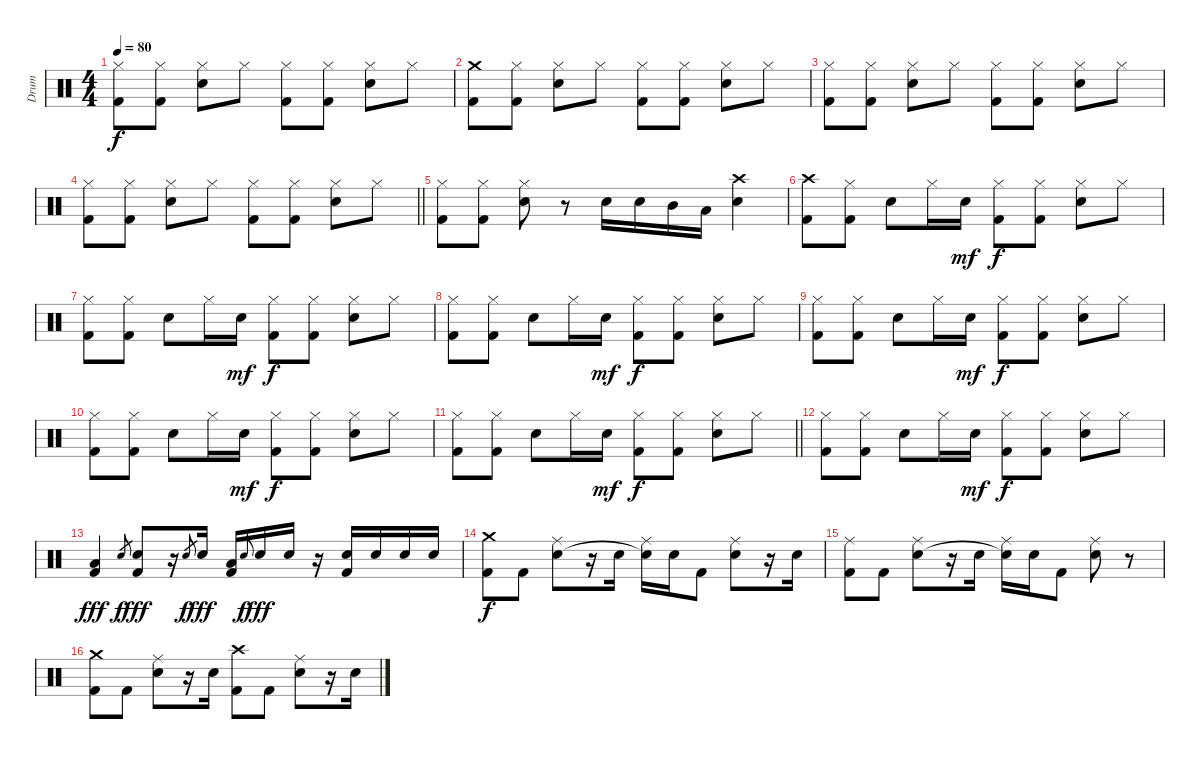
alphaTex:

\track ("Drum" "Drum") {instrument percussion}
\staff {score}
\articulation defaults
\ts (4 4)
\tempo 80
\clef neutral
\ks c
("Hi-Hat (closed)" "Kick (hit) 2").8{dy f} ("Hi-Hat (closed)" "Kick (hit) 2").8 ("Hi-Hat (closed)" "Electric Snare (hit)").8 "Hi-Hat (closed)".8 ("Hi-Hat (closed)" "Kick (hit) 2").8 ("Hi-Hat (closed)" "Kick (hit) 2").8 ("Hi-Hat (closed)" "Electric Snare (hit)").8 "Hi-Hat (closed)".8 |
("Crash medium (hit)" "Kick (hit) 2").8 ("Hi-Hat (closed)" "Kick (hit) 2").8 ("Hi-Hat (closed)" "Electric Snare (hit)").8 "Hi-Hat (closed)".8 ("Hi-Hat (closed)" "Kick (hit) 2").8 ("Hi-Hat (closed)" "Kick (hit) 2").8 ("Hi-Hat (closed)" "Electric Snare (hit)").8 "Hi-Hat (closed)".8 |
("Hi-Hat (closed)" "Kick (hit) 2").8 ("Hi-Hat (closed)" "Kick (hit) 2").8 ("Hi-Hat (closed)" "Electric Snare (hit)").8 "Hi-Hat (closed)".8 ("Hi-Hat (closed)" "Kick (hit) 2").8 ("Hi-Hat (closed)" "Kick (hit) 2").8 ("Hi-Hat (closed)" "Electric Snare (hit)").8 "Hi-Hat (closed)".8 |
\barLineRight lightlight
("Hi-Hat (closed)" "Kick (hit) 2").8 ("Hi-Hat (closed)" "Kick (hit) 2").8 ("Hi-Hat (closed)" "Electric Snare (hit)").8 "Hi-Hat (closed)".8 ("Hi-Hat (closed)" "Kick (hit) 2").8 ("Hi-Hat (closed)" "Kick (hit) 2").8 ("Hi-Hat (closed)" "Electric Snare (hit)").8 "Hi-Hat (closed)".8 |
("Hi-Hat (closed)" "Kick (hit) 2").8 ("Hi-Hat (closed)" "Kick (hit) 2").8 ("Hi-Hat (closed)" "Electric Snare (hit)").8 r.8 "Electric Snare (hit)".16 "Electric Snare (hit)".16 "Mid Tom (hit)".16 "Low Tom (hit)".16 ("Crash high (hit)" "Electric Snare (hit)").4 |
("Kick (hit) 2" "Crash high (hit)").8 ("Kick (hit) 2" "Hi-Hat (closed)").8 "Electric Snare (hit)".8 "Hi-Hat (closed)".16 "Electric Snare (hit)".16{dy mf} ("Kick (hit) 2" "Hi-Hat (closed)").8{dy f} ("Kick (hit) 2" "Hi-Hat (closed)").8 ("Electric Snare (hit)" "Hi-Hat (closed)").8 "Hi-Hat (closed)".8 |
("Kick (hit) 2" "Hi-Hat (closed)").8 ("Kick (hit) 2" "Hi-Hat (closed)").8 "Electric Snare (hit)".8 "Hi-Hat (closed)".16 "Electric Snare (hit)".16{dy mf} ("Kick (hit) 2" "Hi-Hat (closed)").8{dy f} ("Kick (hit) 2" "Hi-Hat (closed)").8 ("Electric Snare (hit)" "Hi-Hat (closed)").8 "Hi-Hat (closed)".8 |
("Kick (hit) 2" "Hi-Hat (closed)").8 ("Kick (hit) 2" "Hi-Hat (closed)").8 "Electric Snare (hit)".8 "Hi-Hat (closed)".16 "Electric Snare (hit)".16{dy mf} ("Kick (hit) 2" "Hi-Hat (closed)").8{dy f} ("Kick (hit) 2" "Hi-Hat (closed)").8 ("Electric Snare (hit)" "Hi-Hat (closed)").8 "Hi-Hat (closed)".8 |
("Kick (hit) 2" "Hi-Hat (closed)").8 ("Kick (hit) 2" "Hi-Hat (closed)").8 "Electric Snare (hit)".8 "Hi-Hat (closed)".16 "Electric Snare (hit)".16{dy mf} ("Kick (hit) 2" "Hi-Hat (closed)").8{dy f} ("Kick (hit) 2" "Hi-Hat (closed)").8 ("Electric Snare (hit)" "Hi-Hat (closed)").8 "Hi-Hat (closed)".8 |
("Kick (hit) 2" "Hi-Hat (closed)").8 ("Kick (hit) 2" "Hi-Hat (closed)").8 "Electric Snare (hit)".8 "Hi-Hat (closed)".16 "Electric Snare (hit)".16{dy mf} ("Kick (hit) 2" "Hi-Hat (closed)").8{dy f} ("Kick (hit) 2" "Hi-Hat (closed)").8 ("Electric Snare (hit)" "Hi-Hat (closed)").8 "Hi-Hat (closed)".8 |
\barLineRight lightlight
("Kick (hit) 2" "Hi-Hat (closed)").8 ("Kick (hit) 2" "Hi-Hat (closed)").8 "Electric Snare (hit)".8 "Hi-Hat (closed)".16 "Electric Snare (hit)".16{dy mf} ("Kick (hit) 2" "Hi-Hat (closed)").8{dy f} ("Kick (hit) 2" "Hi-Hat (closed)").8 ("Electric Snare (hit)" "Hi-Hat (closed)").8 "Hi-Hat (closed)".8 |
("Kick (hit) 2" "Hi-Hat (closed)").8 ("Kick (hit) 2" "Hi-Hat (closed)").8 "Electric Snare (hit)".8 "Hi-Hat (closed)".16 "Electric Snare (hit)".16{dy mf} ("Kick (hit) 2" "Hi-Hat (closed)").8{dy f} ("Kick (hit) 2" "Hi-Hat (closed)").8 ("Electric Snare (hit)" "Hi-Hat (closed)").8 "Hi-Hat (closed)".8 |
("Kick (hit) 2" "Low Tom (hit)").4{dy fff} "Snare (hit) 2".8{gr dy f} ("Snare (hit) 2" "Kick (hit) 2").8{dy fff} r.16 "Snare (hit) 2".8{gr dy f} "Snare (hit) 2".16{dy fff} ("Low Floor Tom (hit)" "Kick (hit) 2").16 "Snare (hit) 2".8{gr onbeat dy f} "Snare (hit) 2".16{dy fff} "Snare (hit) 2".16 r.16 ("Snare (hit) 2" "Kick (hit) 2").16 "Snare (hit) 2".16 "Snare (hit) 2".16 "Snare (hit) 2".16 |
("Crash medium (hit)" "Kick (hit) 2").8{dy f} "Kick (hit) 2".8 ("Ride (middle)" "Electric Snare (hit)").8 r.16 "Electric Snare (hit)".16 ("Ride (middle)" "Electric Snare (hit)"{t}).16 "Electric Snare (hit)".16 "Kick (hit) 2".8 ("Ride (middle)" "Electric Snare (hit)").8 r.16 "Electric Snare (hit)".16 |
("Ride (middle)" "Kick (hit) 2").8 "Kick (hit) 2".8 ("Ride (middle)" "Electric Snare (hit)").8 r.16 "Electric Snare (hit)".16 ("Ride (middle)" "Electric Snare (hit)"{t}).16 "Electric Snare (hit)".16 "Kick (hit) 2".8 ("Ride (middle)" "Electric Snare (hit)").8 r.8 |
("Crash medium (hit)" "Kick (hit) 2").8 "Kick (hit) 2".8 ("Ride (middle)" "Electric Snare (hit)").8 r.16 "Electric Snare (hit)".16 ("Crash high (hit)" "Kick (hit) 2").8 "Kick (hit) 2".8 ("Ride (middle)" "Electric Snare (hit)").8 r.16 "Electric Snare (hit)".16
